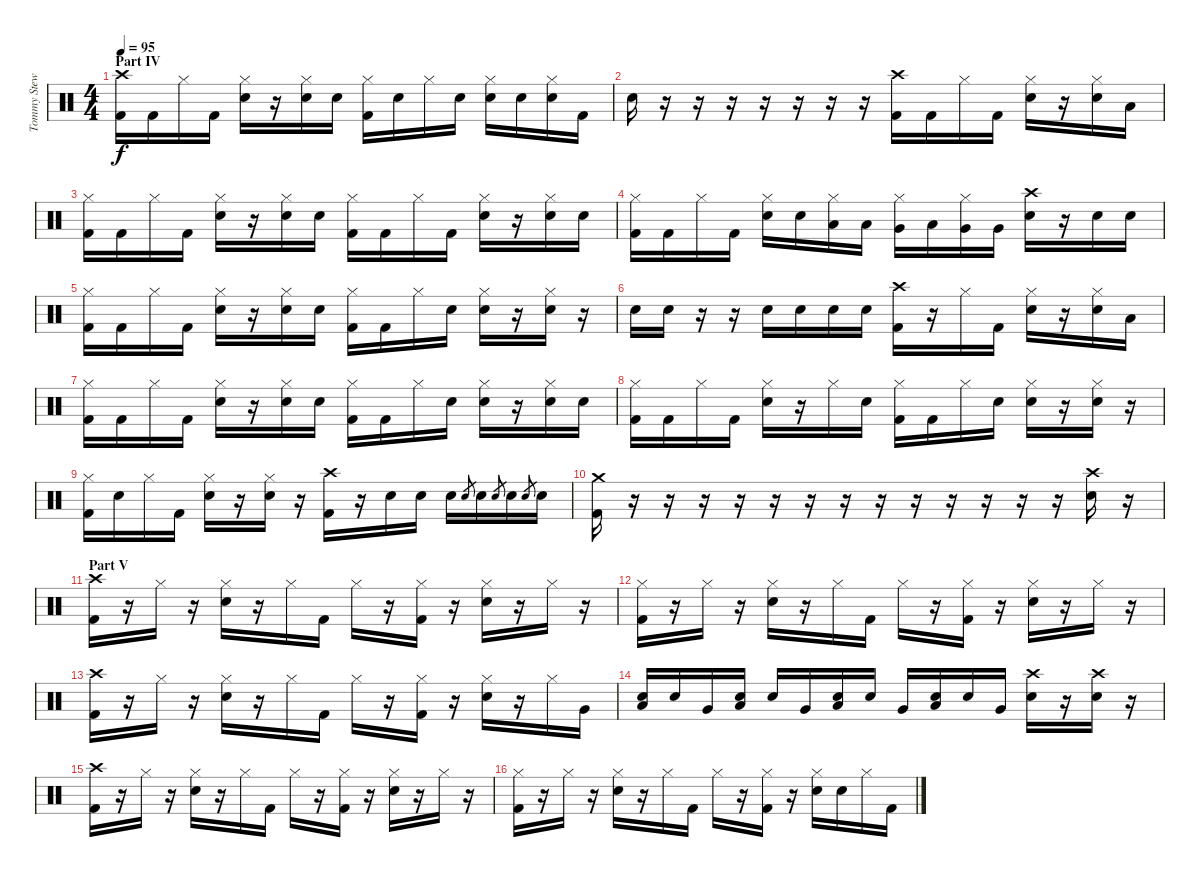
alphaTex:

\track ("Tommy Stewart - Drums" "Tommy Stew") {instrument percussion}
\staff {score}
\articulation defaults
\ts (4 4)
\section ("" "Part IV")
\tempo 95
\clef neutral
\ks c
("Crash high (hit)" "Kick (hit) 2").16{dy f} "Kick (hit) 2".16 "Hi-Hat (closed)".16 "Kick (hit) 2".16 ("Hi-Hat (closed)" "Snare (hit) 2").16 r.16 ("Hi-Hat (closed)" "Snare (hit) 2").16 "Snare (hit) 2".16 ("Hi-Hat (closed)" "Kick (hit) 2").16 "Snare (hit) 2".16 "Hi-Hat (closed)".16 "Snare (hit) 2".16 ("Hi-Hat (closed)" "Snare (hit) 2").16 "Snare (hit) 2".16 ("Hi-Hat (closed)" "Snare (hit) 2").16 "Kick (hit) 2".16 |
"Snare (hit) 2".16 r.16 r.16 r.16 r.16 r.16 r.16 r.16 ("Crash high (hit)" "Kick (hit) 2").16 "Kick (hit) 2".16 "Hi-Hat (closed)".16 "Kick (hit) 2".16 ("Hi-Hat (closed)" "Snare (hit) 2").16 r.16 ("Hi-Hat (closed)" "Snare (hit) 2").16 "Low Tom (hit)".16 |
("Hi-Hat (closed)" "Kick (hit) 2").16 "Kick (hit) 2".16 "Hi-Hat (closed)".16 "Kick (hit) 2".16 ("Hi-Hat (closed)" "Snare (hit) 2").16 r.16 ("Hi-Hat (closed)" "Snare (hit) 2").16 "Snare (hit) 2".16 ("Hi-Hat (closed)" "Kick (hit) 2").16 "Kick (hit) 2".16 "Hi-Hat (closed)".16 "Kick (hit) 2".16 ("Hi-Hat (closed)" "Snare (hit) 2").16 r.16 ("Hi-Hat (closed)" "Snare (hit) 2").16 "Snare (hit) 2".16 |
("Hi-Hat (closed)" "Kick (hit) 2").16 "Kick (hit) 2".16 "Hi-Hat (closed)".16 "Kick (hit) 2".16 ("Hi-Hat (closed)" "Snare (hit) 2").16 "Snare (hit) 2".16 ("Hi-Hat (closed)" "Low Tom (hit)").16 "Low Tom (hit)".16 ("Hi-Hat (closed)" "Very Low Tom (hit)").16 "Low Tom (hit)".16 ("Hi-Hat (closed)" "Very Low Tom (hit)").16 "Very Low Tom (hit)".16 ("Crash high (hit)" "Snare (hit) 2").16 r.16 "Snare (hit) 2".16 "Snare (hit) 2".16 |
("Hi-Hat (closed)" "Kick (hit) 2").16 "Kick (hit) 2".16 "Hi-Hat (closed)".16 "Kick (hit) 2".16 ("Hi-Hat (closed)" "Snare (hit) 2").16 r.16 ("Hi-Hat (closed)" "Snare (hit) 2").16 "Snare (hit) 2".16 ("Hi-Hat (closed)" "Kick (hit) 2").16 "Kick (hit) 2".16 "Hi-Hat (closed)".16 "Snare (hit) 2".16 ("Hi-Hat (closed)" "Snare (hit) 2").16 r.16 ("Hi-Hat (closed)" "Snare (hit) 2").16 r.16 |
"Snare (hit) 2".16 "Snare (hit) 2".16 r.16 r.16 "Snare (hit) 2".16 "Snare (hit) 2".16 "Snare (hit) 2".16 "Snare (hit) 2".16 ("Crash high (hit)" "Kick (hit) 2").16 r.16 "Hi-Hat (closed)".16 "Kick (hit) 2".16 ("Hi-Hat (closed)" "Snare (hit) 2").16 r.16 ("Hi-Hat (closed)" "Snare (hit) 2").16 "Low Tom (hit)".16 |
("Hi-Hat (closed)" "Kick (hit) 2").16 "Kick (hit) 2".16 "Hi-Hat (closed)".16 "Kick (hit) 2".16 ("Hi-Hat (closed)" "Snare (hit) 2").16 r.16 ("Hi-Hat (closed)" "Snare (hit) 2").16 "Snare (hit) 2".16 ("Hi-Hat (closed)" "Kick (hit) 2").16 "Kick (hit) 2".16 "Hi-Hat (closed)".16 "Snare (hit) 2".16 ("Hi-Hat (closed)" "Snare (hit) 2").16 r.16 ("Hi-Hat (closed)" "Snare (hit) 2").16 "Snare (hit) 2".16 |
("Hi-Hat (closed)" "Kick (hit) 2").16 "Kick (hit) 2".16 "Hi-Hat (closed)".16 "Kick (hit) 2".16 ("Hi-Hat (closed)" "Snare (hit) 2").16 r.16 "Hi-Hat (closed)".16 "Snare (hit) 2".16 ("Hi-Hat (closed)" "Kick (hit) 2").16 "Kick (hit) 2".16 "Hi-Hat (closed)".16 "Snare (hit) 2".16 ("Hi-Hat (closed)" "Snare (hit) 2").16 r.16 ("Hi-Hat (closed)" "Snare (hit) 2").16 r.16 |
("Hi-Hat (closed)" "Kick (hit) 2").16 "Snare (hit) 2".16 "Hi-Hat (closed)".16 "Kick (hit) 2".16 ("Hi-Hat (closed)" "Snare (hit) 2").16 r.16 ("Hi-Hat (closed)" "Snare (hit) 2").16 r.16 ("Crash high (hit)" "Kick (hit) 2").16 r.16 "Snare (hit) 2".16 "Snare (hit) 2".16 "Snare (hit) 2".16 "Snare (hit) 2".8{gr} "Snare (hit) 2".16 "Snare (hit) 2".8{gr} "Snare (hit) 2".16 "Snare (hit) 2".8{gr} "Snare (hit) 2".16 |
("Crash medium (hit)" "Kick (hit) 2").16 r.16 r.16 r.16 r.16 r.16 r.16 r.16 r.16 r.16 r.16 r.16 r.16 r.16 ("Crash high (hit)" "Snare (hit) 2").16 r.16 |
\section ("" "Part V")
("Crash high (hit)" "Kick (hit) 2").16 r.16 "Hi-Hat (closed)".16 r.16 ("Hi-Hat (closed)" "Snare (hit) 2").16 r.16 "Hi-Hat (closed)".16 "Kick (hit) 2".16 "Hi-Hat (closed)".16 r.16 ("Hi-Hat (closed)" "Kick (hit) 2").16 r.16 ("Hi-Hat (closed)" "Snare (hit) 2").16 r.16 "Hi-Hat (closed)".16 r.16 |
("Hi-Hat (closed)" "Kick (hit) 2").16 r.16 "Hi-Hat (closed)".16 r.16 ("Hi-Hat (closed)" "Snare (hit) 2").16 r.16 "Hi-Hat (closed)".16 "Kick (hit) 2".16 "Hi-Hat (closed)".16 r.16 ("Hi-Hat (closed)" "Kick (hit) 2").16 r.16 ("Hi-Hat (closed)" "Snare (hit) 2").16 r.16 "Hi-Hat (closed)".16 r.16 |
("Crash high (hit)" "Kick (hit) 2").16 r.16 "Hi-Hat (closed)".16 r.16 ("Hi-Hat (closed)" "Snare (hit) 2").16 r.16 "Hi-Hat (closed)".16 "Kick (hit) 2".16 "Hi-Hat (closed)".16 r.16 ("Hi-Hat (closed)" "Kick (hit) 2").16 r.16 ("Hi-Hat (closed)" "Snare (hit) 2").16 r.16 "Hi-Hat (closed)".16 "Very Low Tom (hit)".16 |
("Low Tom (hit)" "Snare (hit) 2").16 "Snare (hit) 2".16 "Very Low Tom (hit)".16 ("Low Tom (hit)" "Snare (hit) 2").16 "Snare (hit) 2".16 "Very Low Tom (hit)".16 ("Low Tom (hit)" "Snare (hit) 2").16 "Snare (hit) 2".16 "Very Low Tom (hit)".16 ("Low Tom (hit)" "Snare (hit) 2").16 "Snare (hit) 2".16 "Very Low Tom (hit)".16 ("Crash high (hit)" "Snare (hit) 2").16 r.16 ("Crash high (hit)" "Snare (hit) 2").16 r.16 |
("Crash high (hit)" "Kick (hit) 2").16 r.16 "Hi-Hat (closed)".16 r.16 ("Hi-Hat (closed)" "Snare (hit) 2").16 r.16 "Hi-Hat (closed)".16 "Kick (hit) 2".16 "Hi-Hat (closed)".16 r.16 ("Hi-Hat (closed)" "Kick (hit) 2").16 r.16 ("Hi-Hat (closed)" "Snare (hit) 2").16 r.16 "Hi-Hat (closed)".16 r.16 |
("Hi-Hat (closed)" "Kick (hit) 2").16 r.16 "Hi-Hat (closed)".16 r.16 ("Hi-Hat (closed)" "Snare (hit) 2").16 r.16 "Hi-Hat (closed)".16 "Kick (hit) 2".16 "Hi-Hat (closed)".16 r.16 ("Hi-Hat (closed)" "Kick (hit) 2").16 r.16 ("Hi-Hat (closed)" "Snare (hit) 2").16 "Snare (hit) 2".16 "Hi-Hat (closed)".16 "Kick (hit) 2".16
